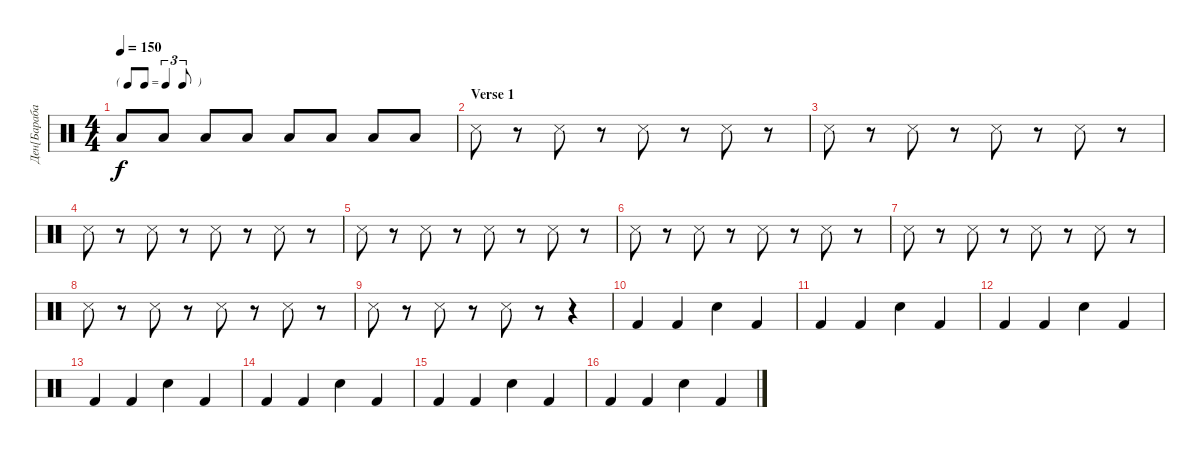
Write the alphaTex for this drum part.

\track ("Ден[Барабаны]" "Ден[Бараба") {instrument percussion}
\staff {score}
\articulation defaults
\ts (4 4)
\tf triplet8th
\tempo 150
\clef neutral
\ks c "Low Floor Tom (hit)".8{dy f} "Low Floor Tom (hit)".8 "Low Floor Tom (hit)".8 "Low Floor Tom (hit)".8 "Low Floor Tom (hit)".8 "Low Floor Tom (hit)".8 "Low Floor Tom (hit)".8 "Low Floor Tom (hit)".8
|
\section ("" "Verse 1")
"Snare (side stick) 3".8 r.8 "Snare (side stick) 3".8 r.8 "Snare (side stick) 3".8 r.8 "Snare (side stick) 3".8 r.8 |
"Snare (side stick) 3".8 r.8 "Snare (side stick) 3".8 r.8 "Snare (side stick) 3".8 r.8 "Snare (side stick) 3".8 r.8 |
"Snare (side stick) 3".8 r.8 "Snare (side stick) 3".8 r.8 "Snare (side stick) 3".8 r.8 "Snare (side stick) 3".8 r.8 |
"Snare (side stick) 3".8 r.8 "Snare (side stick) 3".8 r.8 "Snare (side stick) 3".8 r.8 "Snare (side stick) 3".8 r.8 |
"Snare (side stick) 3".8 r.8 "Snare (side stick) 3".8 r.8 "Snare (side stick) 3".8 r.8 "Snare (side stick) 3".8 r.8 |
"Snare (side stick) 3".8 r.8 "Snare (side stick) 3".8 r.8 "Snare (side stick) 3".8 r.8 "Snare (side stick) 3".8 r.8 |
"Snare (side stick) 3".8 r.8 "Snare (side stick) 3".8 r.8 "Snare (side stick) 3".8 r.8 "Snare (side stick) 3".8 r.8 |
"Snare (side stick) 3".8 r.8 "Snare (side stick) 3".8 r.8 "Snare (side stick) 3".8 r.8 r.4 |
"Kick (hit) 2".4 "Kick (hit) 2".4 "Electric Snare (hit)".4 "Kick (hit) 2".4 |
"Kick (hit) 2".4 "Kick (hit) 2".4 "Electric Snare (hit)".4 "Kick (hit) 2".4 |
"Kick (hit) 2".4 "Kick (hit) 2".4 "Electric Snare (hit)".4 "Kick (hit) 2".4 |
"Kick (hit) 2".4 "Kick (hit) 2".4 "Electric Snare (hit)".4 "Kick (hit) 2".4 |
"Kick (hit) 2".4 "Kick (hit) 2".4 "Electric Snare (hit)".4 "Kick (hit) 2".4 |
"Kick (hit) 2".4 "Kick (hit) 2".4 "Electric Snare (hit)".4 "Kick (hit) 2".4 |
"Kick (hit) 2".4 "Kick (hit) 2".4 "Electric Snare (hit)".4 "Kick (hit) 2".4
